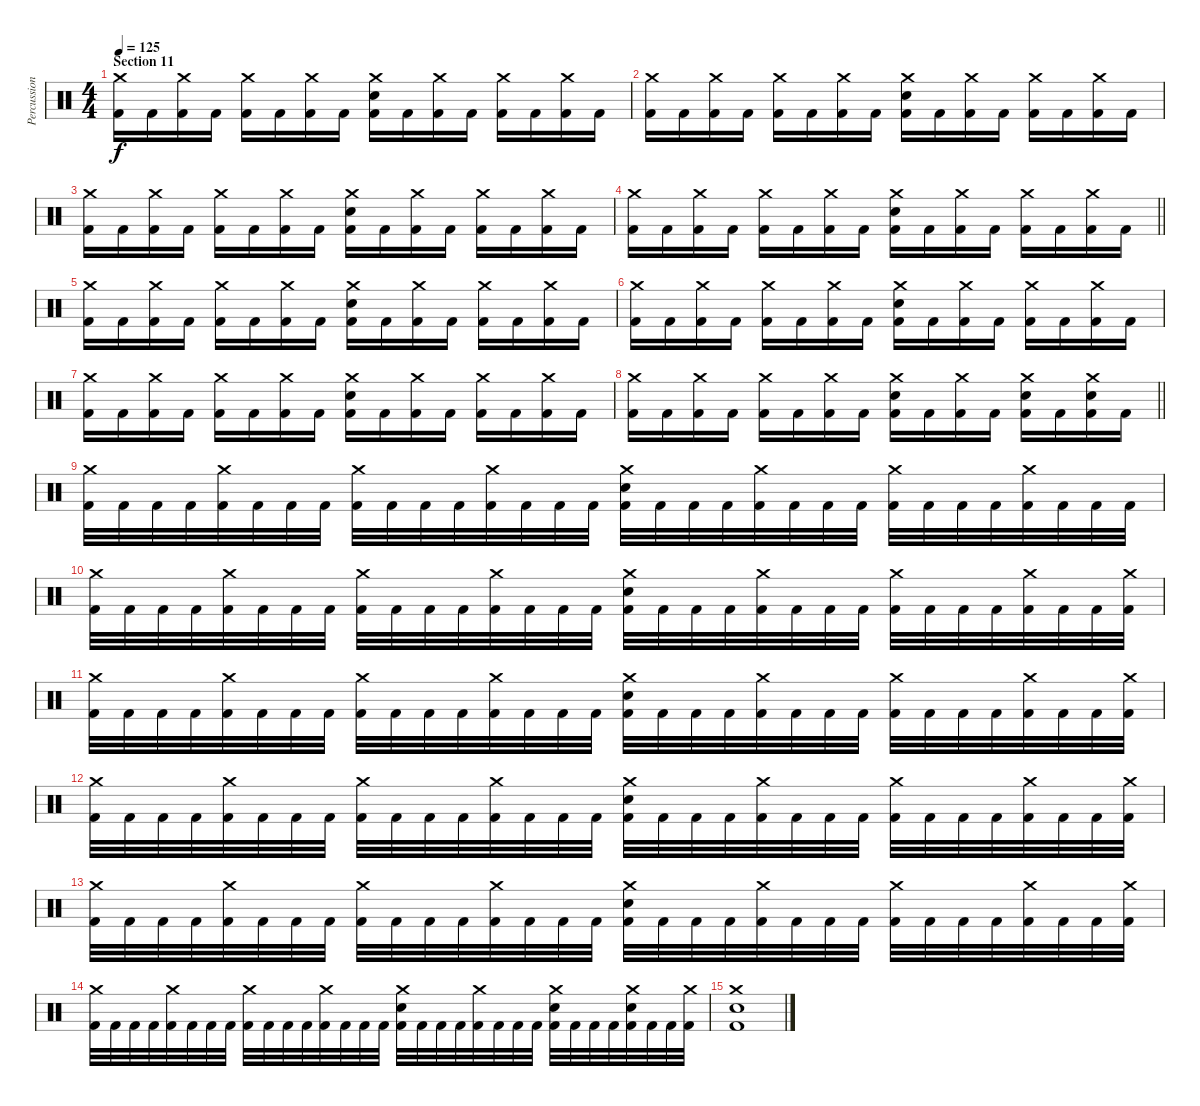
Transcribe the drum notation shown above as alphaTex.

\track ("Percussions" "Percussion") {instrument percussion}
\staff {score}
\articulation defaults
\ts (4 4)
\section ("" "Section 11")
\tempo 125
\clef neutral
\ks c
("Crash medium (hit)" "Kick (hit) 2").16{dy f} "Kick (hit) 2".16 ("Crash medium (hit)" "Kick (hit) 2").16 "Kick (hit) 2".16 ("Crash medium (hit)" "Kick (hit) 2").16 "Kick (hit) 2".16 ("Crash medium (hit)" "Kick (hit) 2").16 "Kick (hit) 2".16 ("Crash medium (hit)" "Electric Snare (hit)" "Kick (hit) 2").16 "Kick (hit) 2".16 ("Crash medium (hit)" "Kick (hit) 2").16 "Kick (hit) 2".16 ("Crash medium (hit)" "Kick (hit) 2").16 "Kick (hit) 2".16 ("Crash medium (hit)" "Kick (hit) 2").16 "Kick (hit) 2".16 |
("Crash medium (hit)" "Kick (hit) 2").16 "Kick (hit) 2".16 ("Crash medium (hit)" "Kick (hit) 2").16 "Kick (hit) 2".16 ("Crash medium (hit)" "Kick (hit) 2").16 "Kick (hit) 2".16 ("Crash medium (hit)" "Kick (hit) 2").16 "Kick (hit) 2".16 ("Crash medium (hit)" "Electric Snare (hit)" "Kick (hit) 2").16 "Kick (hit) 2".16 ("Crash medium (hit)" "Kick (hit) 2").16 "Kick (hit) 2".16 ("Crash medium (hit)" "Kick (hit) 2").16 "Kick (hit) 2".16 ("Crash medium (hit)" "Kick (hit) 2").16 "Kick (hit) 2".16 |
("Crash medium (hit)" "Kick (hit) 2").16 "Kick (hit) 2".16 ("Crash medium (hit)" "Kick (hit) 2").16 "Kick (hit) 2".16 ("Crash medium (hit)" "Kick (hit) 2").16 "Kick (hit) 2".16 ("Crash medium (hit)" "Kick (hit) 2").16 "Kick (hit) 2".16 ("Crash medium (hit)" "Electric Snare (hit)" "Kick (hit) 2").16 "Kick (hit) 2".16 ("Crash medium (hit)" "Kick (hit) 2").16 "Kick (hit) 2".16 ("Crash medium (hit)" "Kick (hit) 2").16 "Kick (hit) 2".16 ("Crash medium (hit)" "Kick (hit) 2").16 "Kick (hit) 2".16 |
\barLineRight lightlight
("Crash medium (hit)" "Kick (hit) 2").16 "Kick (hit) 2".16 ("Crash medium (hit)" "Kick (hit) 2").16 "Kick (hit) 2".16 ("Crash medium (hit)" "Kick (hit) 2").16 "Kick (hit) 2".16 ("Crash medium (hit)" "Kick (hit) 2").16 "Kick (hit) 2".16 ("Crash medium (hit)" "Electric Snare (hit)" "Kick (hit) 2").16 "Kick (hit) 2".16 ("Crash medium (hit)" "Kick (hit) 2").16 "Kick (hit) 2".16 ("Crash medium (hit)" "Kick (hit) 2").16 "Kick (hit) 2".16 ("Crash medium (hit)" "Kick (hit) 2").16 "Kick (hit) 2".16 |
("Crash medium (hit)" "Kick (hit) 2").16 "Kick (hit) 2".16 ("Crash medium (hit)" "Kick (hit) 2").16 "Kick (hit) 2".16 ("Crash medium (hit)" "Kick (hit) 2").16 "Kick (hit) 2".16 ("Crash medium (hit)" "Kick (hit) 2").16 "Kick (hit) 2".16 ("Crash medium (hit)" "Electric Snare (hit)" "Kick (hit) 2").16 "Kick (hit) 2".16 ("Crash medium (hit)" "Kick (hit) 2").16 "Kick (hit) 2".16 ("Crash medium (hit)" "Kick (hit) 2").16 "Kick (hit) 2".16 ("Crash medium (hit)" "Kick (hit) 2").16 "Kick (hit) 2".16 |
("Crash medium (hit)" "Kick (hit) 2").16 "Kick (hit) 2".16 ("Crash medium (hit)" "Kick (hit) 2").16 "Kick (hit) 2".16 ("Crash medium (hit)" "Kick (hit) 2").16 "Kick (hit) 2".16 ("Crash medium (hit)" "Kick (hit) 2").16 "Kick (hit) 2".16 ("Crash medium (hit)" "Electric Snare (hit)" "Kick (hit) 2").16 "Kick (hit) 2".16 ("Crash medium (hit)" "Kick (hit) 2").16 "Kick (hit) 2".16 ("Crash medium (hit)" "Kick (hit) 2").16 "Kick (hit) 2".16 ("Crash medium (hit)" "Kick (hit) 2").16 "Kick (hit) 2".16 |
("Crash medium (hit)" "Kick (hit) 2").16 "Kick (hit) 2".16 ("Crash medium (hit)" "Kick (hit) 2").16 "Kick (hit) 2".16 ("Crash medium (hit)" "Kick (hit) 2").16 "Kick (hit) 2".16 ("Crash medium (hit)" "Kick (hit) 2").16 "Kick (hit) 2".16 ("Crash medium (hit)" "Electric Snare (hit)" "Kick (hit) 2").16 "Kick (hit) 2".16 ("Crash medium (hit)" "Kick (hit) 2").16 "Kick (hit) 2".16 ("Crash medium (hit)" "Kick (hit) 2").16 "Kick (hit) 2".16 ("Crash medium (hit)" "Kick (hit) 2").16 "Kick (hit) 2".16 |
\barLineRight lightlight
("Crash medium (hit)" "Kick (hit) 2").16 "Kick (hit) 2".16 ("Crash medium (hit)" "Kick (hit) 2").16 "Kick (hit) 2".16 ("Crash medium (hit)" "Kick (hit) 2").16 "Kick (hit) 2".16 ("Crash medium (hit)" "Kick (hit) 2").16 "Kick (hit) 2".16 ("Crash medium (hit)" "Electric Snare (hit)" "Kick (hit) 2").16 "Kick (hit) 2".16 ("Crash medium (hit)" "Kick (hit) 2").16 "Kick (hit) 2".16 ("Crash medium (hit)" "Electric Snare (hit)" "Kick (hit) 2").16 "Kick (hit) 2".16 ("Crash medium (hit)" "Electric Snare (hit)" "Kick (hit) 2").16 "Kick (hit) 2".16 |
("Crash medium (hit)" "Kick (hit) 2").32 "Kick (hit) 2".32 "Kick (hit) 2".32 "Kick (hit) 2".32 ("Crash medium (hit)" "Kick (hit) 2").32 "Kick (hit) 2".32 "Kick (hit) 2".32 "Kick (hit) 2".32 ("Crash medium (hit)" "Kick (hit) 2").32 "Kick (hit) 2".32 "Kick (hit) 2".32 "Kick (hit) 2".32 ("Crash medium (hit)" "Kick (hit) 2").32 "Kick (hit) 2".32 "Kick (hit) 2".32 "Kick (hit) 2".32 ("Crash medium (hit)" "Electric Snare (hit)" "Kick (hit) 2").32 "Kick (hit) 2".32 "Kick (hit) 2".32 "Kick (hit) 2".32 ("Crash medium (hit)" "Kick (hit) 2").32 "Kick (hit) 2".32 "Kick (hit) 2".32 "Kick (hit) 2".32 ("Crash medium (hit)" "Kick (hit) 2").32 "Kick (hit) 2".32 "Kick (hit) 2".32 "Kick (hit) 2".32 ("Crash medium (hit)" "Kick (hit) 2").32 "Kick (hit) 2".32 "Kick (hit) 2".32 "Kick (hit) 2".32 |
("Crash medium (hit)" "Kick (hit) 2").32 "Kick (hit) 2".32 "Kick (hit) 2".32 "Kick (hit) 2".32 ("Crash medium (hit)" "Kick (hit) 2").32 "Kick (hit) 2".32 "Kick (hit) 2".32 "Kick (hit) 2".32 ("Crash medium (hit)" "Kick (hit) 2").32 "Kick (hit) 2".32 "Kick (hit) 2".32 "Kick (hit) 2".32 ("Crash medium (hit)" "Kick (hit) 2").32 "Kick (hit) 2".32 "Kick (hit) 2".32 "Kick (hit) 2".32 ("Crash medium (hit)" "Electric Snare (hit)" "Kick (hit) 2").32 "Kick (hit) 2".32 "Kick (hit) 2".32 "Kick (hit) 2".32 ("Crash medium (hit)" "Kick (hit) 2").32 "Kick (hit) 2".32 "Kick (hit) 2".32 "Kick (hit) 2".32 ("Crash medium (hit)" "Kick (hit) 2").32 "Kick (hit) 2".32 "Kick (hit) 2".32 "Kick (hit) 2".32 ("Crash medium (hit)" "Kick (hit) 2").32 "Kick (hit) 2".32 "Kick (hit) 2".32 ("Crash medium (hit)" "Kick (hit) 2").32 |
("Crash medium (hit)" "Kick (hit) 2").32 "Kick (hit) 2".32 "Kick (hit) 2".32 "Kick (hit) 2".32 ("Crash medium (hit)" "Kick (hit) 2").32 "Kick (hit) 2".32 "Kick (hit) 2".32 "Kick (hit) 2".32 ("Crash medium (hit)" "Kick (hit) 2").32 "Kick (hit) 2".32 "Kick (hit) 2".32 "Kick (hit) 2".32 ("Crash medium (hit)" "Kick (hit) 2").32 "Kick (hit) 2".32 "Kick (hit) 2".32 "Kick (hit) 2".32 ("Crash medium (hit)" "Electric Snare (hit)" "Kick (hit) 2").32 "Kick (hit) 2".32 "Kick (hit) 2".32 "Kick (hit) 2".32 ("Crash medium (hit)" "Kick (hit) 2").32 "Kick (hit) 2".32 "Kick (hit) 2".32 "Kick (hit) 2".32 ("Crash medium (hit)" "Kick (hit) 2").32 "Kick (hit) 2".32 "Kick (hit) 2".32 "Kick (hit) 2".32 ("Crash medium (hit)" "Kick (hit) 2").32 "Kick (hit) 2".32 "Kick (hit) 2".32 ("Crash medium (hit)" "Kick (hit) 2").32 |
("Crash medium (hit)" "Kick (hit) 2").32 "Kick (hit) 2".32 "Kick (hit) 2".32 "Kick (hit) 2".32 ("Crash medium (hit)" "Kick (hit) 2").32 "Kick (hit) 2".32 "Kick (hit) 2".32 "Kick (hit) 2".32 ("Crash medium (hit)" "Kick (hit) 2").32 "Kick (hit) 2".32 "Kick (hit) 2".32 "Kick (hit) 2".32 ("Crash medium (hit)" "Kick (hit) 2").32 "Kick (hit) 2".32 "Kick (hit) 2".32 "Kick (hit) 2".32 ("Crash medium (hit)" "Electric Snare (hit)" "Kick (hit) 2").32 "Kick (hit) 2".32 "Kick (hit) 2".32 "Kick (hit) 2".32 ("Crash medium (hit)" "Kick (hit) 2").32 "Kick (hit) 2".32 "Kick (hit) 2".32 "Kick (hit) 2".32 ("Crash medium (hit)" "Kick (hit) 2").32 "Kick (hit) 2".32 "Kick (hit) 2".32 "Kick (hit) 2".32 ("Crash medium (hit)" "Kick (hit) 2").32 "Kick (hit) 2".32 "Kick (hit) 2".32 ("Crash medium (hit)" "Kick (hit) 2").32 |
("Crash medium (hit)" "Kick (hit) 2").32 "Kick (hit) 2".32 "Kick (hit) 2".32 "Kick (hit) 2".32 ("Crash medium (hit)" "Kick (hit) 2").32 "Kick (hit) 2".32 "Kick (hit) 2".32 "Kick (hit) 2".32 ("Crash medium (hit)" "Kick (hit) 2").32 "Kick (hit) 2".32 "Kick (hit) 2".32 "Kick (hit) 2".32 ("Crash medium (hit)" "Kick (hit) 2").32 "Kick (hit) 2".32 "Kick (hit) 2".32 "Kick (hit) 2".32 ("Crash medium (hit)" "Electric Snare (hit)" "Kick (hit) 2").32 "Kick (hit) 2".32 "Kick (hit) 2".32 "Kick (hit) 2".32 ("Crash medium (hit)" "Kick (hit) 2").32 "Kick (hit) 2".32 "Kick (hit) 2".32 "Kick (hit) 2".32 ("Crash medium (hit)" "Kick (hit) 2").32 "Kick (hit) 2".32 "Kick (hit) 2".32 "Kick (hit) 2".32 ("Crash medium (hit)" "Kick (hit) 2").32 "Kick (hit) 2".32 "Kick (hit) 2".32 ("Crash medium (hit)" "Kick (hit) 2").32 |
("Crash medium (hit)" "Kick (hit) 2").32 "Kick (hit) 2".32 "Kick (hit) 2".32 "Kick (hit) 2".32 ("Crash medium (hit)" "Kick (hit) 2").32 "Kick (hit) 2".32 "Kick (hit) 2".32 "Kick (hit) 2".32 ("Crash medium (hit)" "Kick (hit) 2").32 "Kick (hit) 2".32 "Kick (hit) 2".32 "Kick (hit) 2".32 ("Crash medium (hit)" "Kick (hit) 2").32 "Kick (hit) 2".32 "Kick (hit) 2".32 "Kick (hit) 2".32 ("Crash medium (hit)" "Electric Snare (hit)" "Kick (hit) 2").32 "Kick (hit) 2".32 "Kick (hit) 2".32 "Kick (hit) 2".32 ("Crash medium (hit)" "Kick (hit) 2").32 "Kick (hit) 2".32 "Kick (hit) 2".32 "Kick (hit) 2".32 ("Crash medium (hit)" "Electric Snare (hit)" "Kick (hit) 2").32 "Kick (hit) 2".32 "Kick (hit) 2".32 "Kick (hit) 2".32 ("Crash medium (hit)" "Electric Snare (hit)" "Kick (hit) 2").32 "Kick (hit) 2".32 "Kick (hit) 2".32 ("Crash medium (hit)" "Kick (hit) 2").32 |
("Crash medium (hit)" "Electric Snare (hit)" "Kick (hit) 2").1
